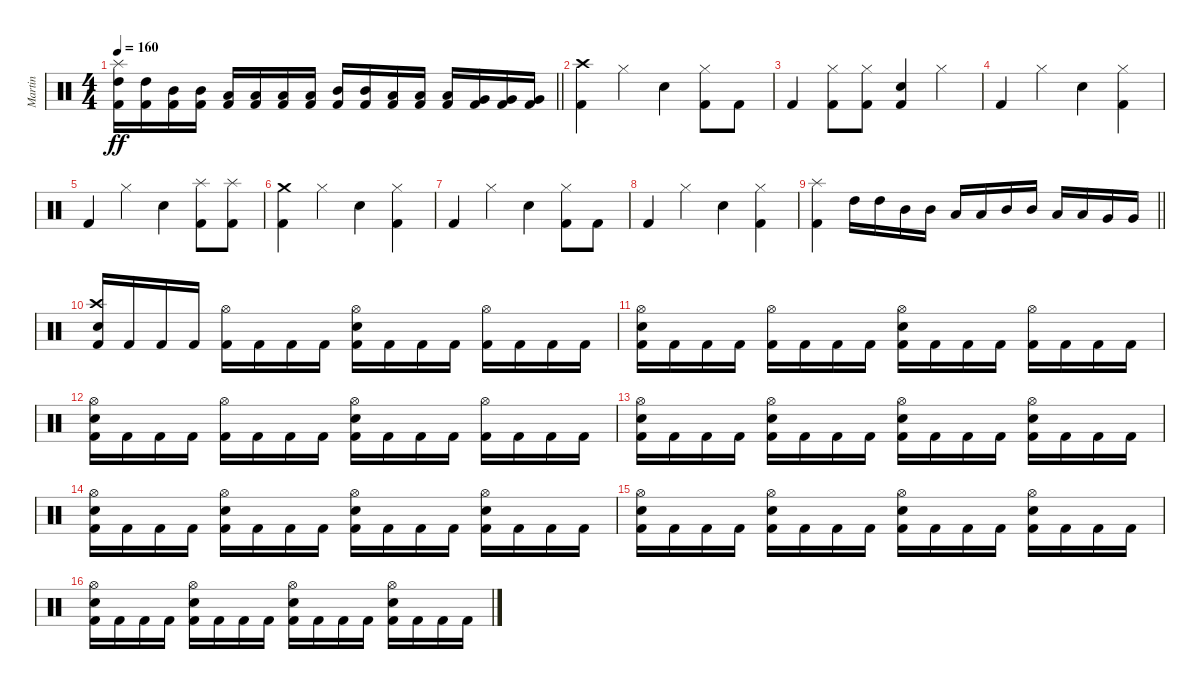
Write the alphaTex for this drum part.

\track ("Martin" "Martin") {instrument percussion}
\staff {score}
\articulation defaults
\ts (4 4)
\tempo 160
\clef neutral
\barLineRight lightlight
\ks c
("Splash (hit)" "High Tom (hit)" "Kick (hit) 2").16{dy ff} ("High Tom (hit)" "Kick (hit) 2").16 ("Mid Tom (hit)" "Kick (hit) 2").16 ("Mid Tom (hit)" "Kick (hit) 2").16 ("Low Tom (hit)" "Kick (hit) 2").16 ("Low Tom (hit)" "Kick (hit) 2").16 ("Low Tom (hit)" "Kick (hit) 2").16 ("Low Tom (hit)" "Kick (hit) 2").16 ("Mid Tom (hit)" "Kick (hit) 2").16 ("Mid Tom (hit)" "Kick (hit) 2").16 ("Low Tom (hit)" "Kick (hit) 2").16 ("Low Tom (hit)" "Kick (hit) 2").16 ("Low Tom (hit)" "Kick (hit) 2").16 ("Very Low Tom (hit)" "Kick (hit) 2").16 ("Very Low Tom (hit)" "Kick (hit) 2").16 ("Very Low Tom (hit)" "Kick (hit) 2").16 |
("Crash high (hit)" "Kick (hit) 2").4 "Hi-Hat (closed)".4 "Electric Snare (hit)".4 ("Hi-Hat (closed)" "Kick (hit) 2").8 "Kick (hit) 2".8 |
"Kick (hit) 2".4 ("Hi-Hat (closed)" "Kick (hit) 2").8 ("Hi-Hat (closed)" "Kick (hit) 2").8 ("Electric Snare (hit)" "Kick (hit) 2").4 "Hi-Hat (closed)".4 |
"Kick (hit) 2".4 "Hi-Hat (closed)".4 "Electric Snare (hit)".4 ("Hi-Hat (closed)" "Kick (hit) 2").4 |
"Kick (hit) 2".4 "Hi-Hat (closed)".4 "Electric Snare (hit)".4 ("Splash (hit)" "Kick (hit) 2").8 ("Splash (hit)" "Kick (hit) 2").8 |
("Crash medium (hit)" "Kick (hit) 2").4 "Hi-Hat (closed)".4 "Electric Snare (hit)".4 ("Hi-Hat (closed)" "Kick (hit) 2").4 |
"Kick (hit) 2".4 "Hi-Hat (closed)".4 "Electric Snare (hit)".4 ("Hi-Hat (closed)" "Kick (hit) 2").8 "Kick (hit) 2".8 |
"Kick (hit) 2".4 "Hi-Hat (closed)".4 "Electric Snare (hit)".4 ("Hi-Hat (closed)" "Kick (hit) 2").4 |
\barLineRight lightlight
("Splash (hit)" "Kick (hit) 2").4 "High Tom (hit)".16 "High Tom (hit)".16 "Mid Tom (hit)".16 "Mid Tom (hit)".16 "Low Tom (hit)".16 "Low Tom (hit)".16 "Mid Tom (hit)".16 "Mid Tom (hit)".16 "Low Tom (hit)".16 "Low Tom (hit)".16 "Very Low Tom (hit)".16 "Very Low Tom (hit)".16 |
("Crash high (hit)" "Electric Snare (hit)" "Kick (hit) 2").16 "Kick (hit) 2".16 "Kick (hit) 2".16 "Kick (hit) 2".16 ("Hi-Hat (open)" "Kick (hit) 2").16 "Kick (hit) 2".16 "Kick (hit) 2".16 "Kick (hit) 2".16 ("Hi-Hat (open)" "Electric Snare (hit)" "Kick (hit) 2").16 "Kick (hit) 2".16 "Kick (hit) 2".16 "Kick (hit) 2".16 ("Hi-Hat (open)" "Kick (hit) 2").16 "Kick (hit) 2".16 "Kick (hit) 2".16 "Kick (hit) 2".16 |
("Hi-Hat (open)" "Electric Snare (hit)" "Kick (hit) 2").16 "Kick (hit) 2".16 "Kick (hit) 2".16 "Kick (hit) 2".16 ("Hi-Hat (open)" "Kick (hit) 2").16 "Kick (hit) 2".16 "Kick (hit) 2".16 "Kick (hit) 2".16 ("Hi-Hat (open)" "Electric Snare (hit)" "Kick (hit) 2").16 "Kick (hit) 2".16 "Kick (hit) 2".16 "Kick (hit) 2".16 ("Hi-Hat (open)" "Kick (hit) 2").16 "Kick (hit) 2".16 "Kick (hit) 2".16 "Kick (hit) 2".16 |
("Hi-Hat (open)" "Electric Snare (hit)" "Kick (hit) 2").16 "Kick (hit) 2".16 "Kick (hit) 2".16 "Kick (hit) 2".16 ("Hi-Hat (open)" "Kick (hit) 2").16 "Kick (hit) 2".16 "Kick (hit) 2".16 "Kick (hit) 2".16 ("Hi-Hat (open)" "Electric Snare (hit)" "Kick (hit) 2").16 "Kick (hit) 2".16 "Kick (hit) 2".16 "Kick (hit) 2".16 ("Hi-Hat (open)" "Kick (hit) 2").16 "Kick (hit) 2".16 "Kick (hit) 2".16 "Kick (hit) 2".16 |
("Hi-Hat (open)" "Electric Snare (hit)" "Kick (hit) 2").16 "Kick (hit) 2".16 "Kick (hit) 2".16 "Kick (hit) 2".16 ("Hi-Hat (open)" "Electric Snare (hit)" "Kick (hit) 2").16 "Kick (hit) 2".16 "Kick (hit) 2".16 "Kick (hit) 2".16 ("Hi-Hat (open)" "Electric Snare (hit)" "Kick (hit) 2").16 "Kick (hit) 2".16 "Kick (hit) 2".16 "Kick (hit) 2".16 ("Hi-Hat (open)" "Electric Snare (hit)" "Kick (hit) 2").16 "Kick (hit) 2".16 "Kick (hit) 2".16 "Kick (hit) 2".16 |
("Hi-Hat (open)" "Electric Snare (hit)" "Kick (hit) 2").16 "Kick (hit) 2".16 "Kick (hit) 2".16 "Kick (hit) 2".16 ("Hi-Hat (open)" "Electric Snare (hit)" "Kick (hit) 2").16 "Kick (hit) 2".16 "Kick (hit) 2".16 "Kick (hit) 2".16 ("Hi-Hat (open)" "Electric Snare (hit)" "Kick (hit) 2").16 "Kick (hit) 2".16 "Kick (hit) 2".16 "Kick (hit) 2".16 ("Hi-Hat (open)" "Electric Snare (hit)" "Kick (hit) 2").16 "Kick (hit) 2".16 "Kick (hit) 2".16 "Kick (hit) 2".16 |
("Hi-Hat (open)" "Electric Snare (hit)" "Kick (hit) 2").16 "Kick (hit) 2".16 "Kick (hit) 2".16 "Kick (hit) 2".16 ("Hi-Hat (open)" "Electric Snare (hit)" "Kick (hit) 2").16 "Kick (hit) 2".16 "Kick (hit) 2".16 "Kick (hit) 2".16 ("Hi-Hat (open)" "Electric Snare (hit)" "Kick (hit) 2").16 "Kick (hit) 2".16 "Kick (hit) 2".16 "Kick (hit) 2".16 ("Hi-Hat (open)" "Electric Snare (hit)" "Kick (hit) 2").16 "Kick (hit) 2".16 "Kick (hit) 2".16 "Kick (hit) 2".16 |
("Hi-Hat (open)" "Electric Snare (hit)" "Kick (hit) 2").16 "Kick (hit) 2".16 "Kick (hit) 2".16 "Kick (hit) 2".16 ("Hi-Hat (open)" "Electric Snare (hit)" "Kick (hit) 2").16 "Kick (hit) 2".16 "Kick (hit) 2".16 "Kick (hit) 2".16 ("Hi-Hat (open)" "Electric Snare (hit)" "Kick (hit) 2").16 "Kick (hit) 2".16 "Kick (hit) 2".16 "Kick (hit) 2".16 ("Hi-Hat (open)" "Electric Snare (hit)" "Kick (hit) 2").16 "Kick (hit) 2".16 "Kick (hit) 2".16 "Kick (hit) 2".16
